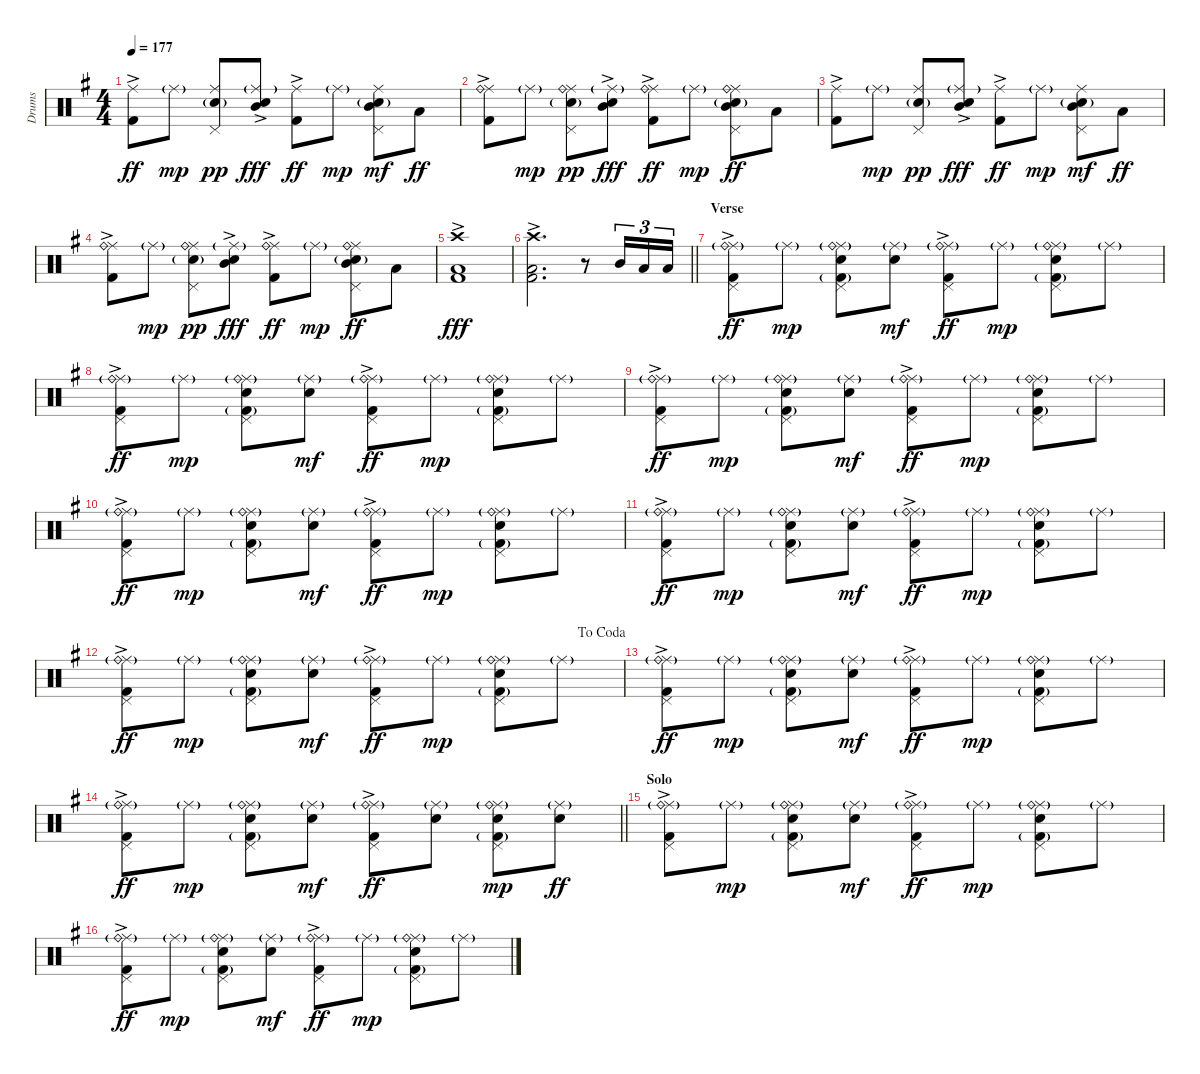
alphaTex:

\track ("Drums" "Drums") {instrument percussion}
\staff {score}
\articulation defaults
\ts (4 4)
\tempo 177
\clef neutral
\ks g
("Ride (middle)" "Kick (hit) 2"{ac}).8{dy ff} "Ride (middle)"{g}.8{dy mp} ("Ride (middle)" "Electric Snare (hit)"{g} "Pedal Hi-Hat (hit)").8{dy pp} ("Ride (middle)"{g} "Mid Tom (hit)" "Electric Snare (hit)"{ac}).8{dy fff} ("Ride (middle)" "Kick (hit) 2"{ac}).8{dy ff} "Ride (middle)"{g}.8{dy mp} ("Ride (middle)" "Mid Tom (hit)" "Electric Snare (hit)"{g} "Pedal Hi-Hat (hit)").8{dy mf} "Low Tom (hit)".8{dy ff} |
("Ride (middle)" "Ride (bell)" "Kick (hit) 2"{ac}).8 "Ride (middle)"{g}.8{dy mp} ("Ride (middle)" "Ride (bell)" "Electric Snare (hit)"{g} "Pedal Hi-Hat (hit)").8{dy pp} ("Ride (middle)"{g} "Mid Tom (hit)" "Electric Snare (hit)"{ac}).8{dy fff} ("Ride (middle)" "Ride (bell)" "Kick (hit) 2"{ac}).8{dy ff} "Ride (middle)"{g}.8{dy mp} ("Ride (middle)" "Mid Tom (hit)" "Electric Snare (hit)"{g} "Ride (bell)" "Pedal Hi-Hat (hit)").8{dy ff} "Low Tom (hit)".8 |
("Ride (middle)" "Kick (hit) 2"{ac}).8 "Ride (middle)"{g}.8{dy mp} ("Ride (middle)" "Electric Snare (hit)"{g} "Pedal Hi-Hat (hit)").8{dy pp} ("Ride (middle)"{g} "Mid Tom (hit)" "Electric Snare (hit)"{ac}).8{dy fff} ("Ride (middle)" "Kick (hit) 2"{ac}).8{dy ff} "Ride (middle)"{g}.8{dy mp} ("Ride (middle)" "Mid Tom (hit)" "Electric Snare (hit)"{g} "Pedal Hi-Hat (hit)").8{dy mf} "Low Tom (hit)".8{dy ff} |
("Ride (middle)" "Ride (bell)" "Kick (hit) 2"{ac}).8 "Ride (middle)"{g}.8{dy mp} ("Ride (middle)" "Ride (bell)" "Electric Snare (hit)"{g} "Pedal Hi-Hat (hit)").8{dy pp} ("Ride (middle)"{g} "Mid Tom (hit)" "Electric Snare (hit)"{ac}).8{dy fff} ("Ride (middle)" "Ride (bell)" "Kick (hit) 2"{ac}).8{dy ff} "Ride (middle)"{g}.8{dy mp} ("Ride (middle)" "Mid Tom (hit)" "Electric Snare (hit)"{g} "Ride (bell)" "Pedal Hi-Hat (hit)").8{dy ff} "Low Tom (hit)".8 |
("Crash high (hit)" "Low Tom (hit)" "Kick (hit) 2"{ac}).1{dy fff} |
\barLineRight lightlight
("Crash high (hit)" "Low Tom (hit)" "Kick (hit) 2"{ac}).2{d} r.8 "Mid Tom (hit)".16{tu (3 2)} "Low Tom (hit)".16{tu (3 2)} "Low Floor Tom (hit)".16{tu (3 2)} |
\section ("" "Verse")
("Ride (middle)" "Ride (bell)"{g} "Pedal Hi-Hat (hit)" "Kick (hit) 2"{ac}).8{dy ff} "Ride (middle)"{g}.8{dy mp} ("Ride (middle)" "Ride (bell)"{g} "Electric Snare (hit)" "Pedal Hi-Hat (hit)" "Kick (hit) 2"{g}).8 ("Ride (middle)"{g} "Electric Snare (hit)").8{dy mf} ("Ride (middle)" "Ride (bell)"{g} "Pedal Hi-Hat (hit)" "Kick (hit) 2"{ac}).8{dy ff} "Ride (middle)"{g}.8{dy mp} ("Ride (middle)" "Ride (bell)"{g} "Electric Snare (hit)" "Pedal Hi-Hat (hit)" "Kick (hit) 2"{g}).8 "Ride (middle)"{g}.8 |
("Ride (middle)" "Ride (bell)"{g} "Pedal Hi-Hat (hit)" "Kick (hit) 2"{ac}).8{dy ff} "Ride (middle)"{g}.8{dy mp} ("Ride (middle)" "Ride (bell)"{g} "Electric Snare (hit)" "Pedal Hi-Hat (hit)" "Kick (hit) 2"{g}).8 ("Ride (middle)"{g} "Electric Snare (hit)").8{dy mf} ("Ride (middle)" "Ride (bell)"{g} "Pedal Hi-Hat (hit)" "Kick (hit) 2"{ac}).8{dy ff} "Ride (middle)"{g}.8{dy mp} ("Ride (middle)" "Ride (bell)"{g} "Electric Snare (hit)" "Pedal Hi-Hat (hit)" "Kick (hit) 2"{g}).8 "Ride (middle)"{g}.8 |
("Ride (middle)" "Ride (bell)"{g} "Pedal Hi-Hat (hit)" "Kick (hit) 2"{ac}).8{dy ff} "Ride (middle)"{g}.8{dy mp} ("Ride (middle)" "Ride (bell)"{g} "Electric Snare (hit)" "Pedal Hi-Hat (hit)" "Kick (hit) 2"{g}).8 ("Ride (middle)"{g} "Electric Snare (hit)").8{dy mf} ("Ride (middle)" "Ride (bell)"{g} "Pedal Hi-Hat (hit)" "Kick (hit) 2"{ac}).8{dy ff} "Ride (middle)"{g}.8{dy mp} ("Ride (middle)" "Ride (bell)"{g} "Electric Snare (hit)" "Pedal Hi-Hat (hit)" "Kick (hit) 2"{g}).8 "Ride (middle)"{g}.8 |
("Ride (middle)" "Ride (bell)"{g} "Pedal Hi-Hat (hit)" "Kick (hit) 2"{ac}).8{dy ff} "Ride (middle)"{g}.8{dy mp} ("Ride (middle)" "Ride (bell)"{g} "Electric Snare (hit)" "Pedal Hi-Hat (hit)" "Kick (hit) 2"{g}).8 ("Ride (middle)"{g} "Electric Snare (hit)").8{dy mf} ("Ride (middle)" "Ride (bell)"{g} "Pedal Hi-Hat (hit)" "Kick (hit) 2"{ac}).8{dy ff} "Ride (middle)"{g}.8{dy mp} ("Ride (middle)" "Ride (bell)"{g} "Electric Snare (hit)" "Pedal Hi-Hat (hit)" "Kick (hit) 2"{g}).8 "Ride (middle)"{g}.8 |
("Ride (middle)" "Ride (bell)"{g} "Pedal Hi-Hat (hit)" "Kick (hit) 2"{ac}).8{dy ff} "Ride (middle)"{g}.8{dy mp} ("Ride (middle)" "Ride (bell)"{g} "Electric Snare (hit)" "Pedal Hi-Hat (hit)" "Kick (hit) 2"{g}).8 ("Ride (middle)"{g} "Electric Snare (hit)").8{dy mf} ("Ride (middle)" "Ride (bell)"{g} "Pedal Hi-Hat (hit)" "Kick (hit) 2"{ac}).8{dy ff} "Ride (middle)"{g}.8{dy mp} ("Ride (middle)" "Ride (bell)"{g} "Electric Snare (hit)" "Pedal Hi-Hat (hit)" "Kick (hit) 2"{g}).8 "Ride (middle)"{g}.8 |
\jump dacoda
("Ride (middle)" "Ride (bell)"{g} "Pedal Hi-Hat (hit)" "Kick (hit) 2"{ac}).8{dy ff} "Ride (middle)"{g}.8{dy mp} ("Ride (middle)" "Ride (bell)"{g} "Electric Snare (hit)" "Pedal Hi-Hat (hit)" "Kick (hit) 2"{g}).8 ("Ride (middle)"{g} "Electric Snare (hit)").8{dy mf} ("Ride (middle)" "Ride (bell)"{g} "Pedal Hi-Hat (hit)" "Kick (hit) 2"{ac}).8{dy ff} "Ride (middle)"{g}.8{dy mp} ("Ride (middle)" "Ride (bell)"{g} "Electric Snare (hit)" "Pedal Hi-Hat (hit)" "Kick (hit) 2"{g}).8 "Ride (middle)"{g}.8 |
("Ride (middle)" "Ride (bell)"{g} "Pedal Hi-Hat (hit)" "Kick (hit) 2"{ac}).8{dy ff} "Ride (middle)"{g}.8{dy mp} ("Ride (middle)" "Ride (bell)"{g} "Electric Snare (hit)" "Pedal Hi-Hat (hit)" "Kick (hit) 2"{g}).8 ("Ride (middle)"{g} "Electric Snare (hit)").8{dy mf} ("Ride (middle)" "Ride (bell)"{g} "Pedal Hi-Hat (hit)" "Kick (hit) 2"{ac}).8{dy ff} "Ride (middle)"{g}.8{dy mp} ("Ride (middle)" "Ride (bell)"{g} "Electric Snare (hit)" "Pedal Hi-Hat (hit)" "Kick (hit) 2"{g}).8 "Ride (middle)"{g}.8 |
\barLineRight lightlight
("Ride (middle)" "Ride (bell)"{g} "Pedal Hi-Hat (hit)" "Kick (hit) 2"{ac}).8{dy ff} "Ride (middle)"{g}.8{dy mp} ("Ride (middle)" "Ride (bell)"{g} "Electric Snare (hit)" "Pedal Hi-Hat (hit)" "Kick (hit) 2"{g}).8 ("Ride (middle)"{g} "Electric Snare (hit)").8{dy mf} ("Ride (middle)" "Ride (bell)"{g} "Pedal Hi-Hat (hit)" "Kick (hit) 2"{ac}).8{dy ff} ("Ride (middle)"{g} "Electric Snare (hit)").8 ("Ride (middle)" "Ride (bell)"{g} "Electric Snare (hit)" "Pedal Hi-Hat (hit)" "Kick (hit) 2"{g}).8{dy mp} ("Ride (middle)"{g} "Electric Snare (hit)").8{dy ff} |
\section ("" "Solo")
("Ride (middle)" "Ride (bell)"{g} "Pedal Hi-Hat (hit)" "Kick (hit) 2"{ac}).8 "Ride (middle)"{g}.8{dy mp} ("Ride (middle)" "Ride (bell)"{g} "Electric Snare (hit)" "Pedal Hi-Hat (hit)" "Kick (hit) 2"{g}).8 ("Ride (middle)"{g} "Electric Snare (hit)").8{dy mf} ("Ride (middle)" "Ride (bell)"{g} "Pedal Hi-Hat (hit)" "Kick (hit) 2"{ac}).8{dy ff} "Ride (middle)"{g}.8{dy mp} ("Ride (middle)" "Ride (bell)"{g} "Electric Snare (hit)" "Pedal Hi-Hat (hit)" "Kick (hit) 2"{g}).8 "Ride (middle)"{g}.8 |
("Ride (middle)" "Ride (bell)"{g} "Pedal Hi-Hat (hit)" "Kick (hit) 2"{ac}).8{dy ff} "Ride (middle)"{g}.8{dy mp} ("Ride (middle)" "Ride (bell)"{g} "Electric Snare (hit)" "Pedal Hi-Hat (hit)" "Kick (hit) 2"{g}).8 ("Ride (middle)"{g} "Electric Snare (hit)").8{dy mf} ("Ride (middle)" "Ride (bell)"{g} "Pedal Hi-Hat (hit)" "Kick (hit) 2"{ac}).8{dy ff} "Ride (middle)"{g}.8{dy mp} ("Ride (middle)" "Ride (bell)"{g} "Electric Snare (hit)" "Pedal Hi-Hat (hit)" "Kick (hit) 2"{g}).8 "Ride (middle)"{g}.8
